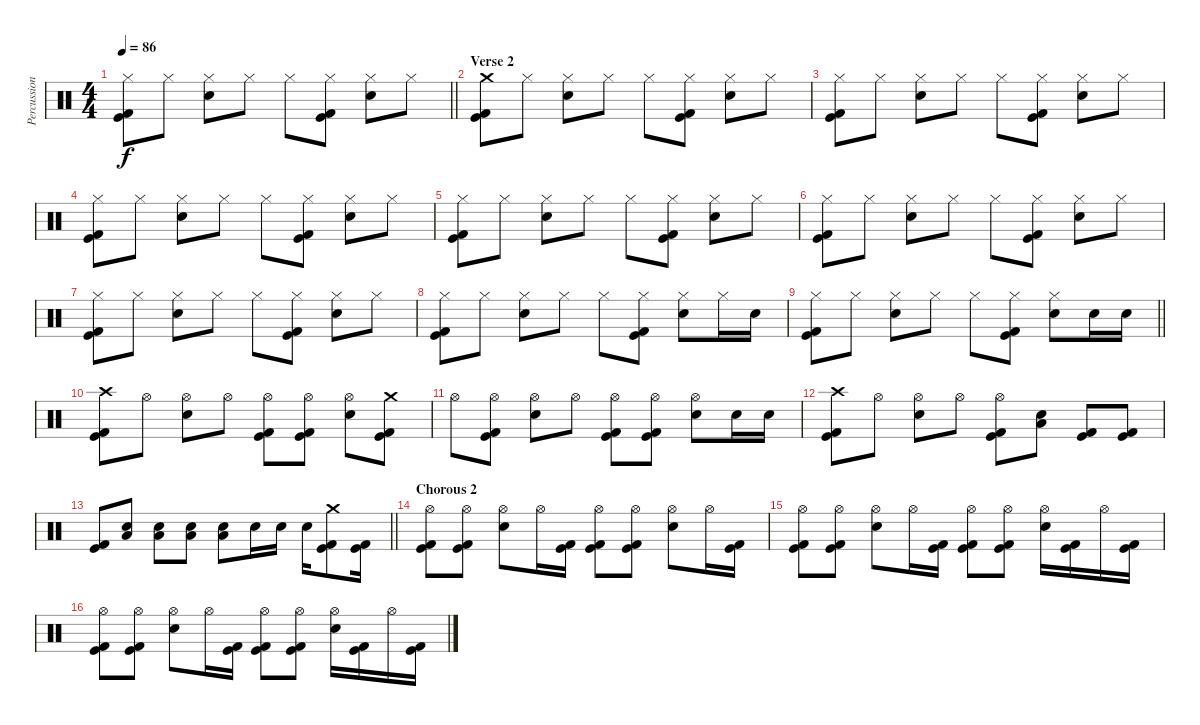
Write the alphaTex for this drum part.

\track ("Percussion" "Percussion") {instrument percussion}
\staff {score}
\articulation defaults
\ts (4 4)
\tempo 86
\clef neutral
\barLineRight lightlight
\ks c
("Hi-Hat (closed)" "Kick (hit)" "Kick (hit) 2").8{dy f} "Hi-Hat (closed)".8 ("Hi-Hat (closed)" "Electric Snare (hit)").8 "Hi-Hat (closed)".8 "Hi-Hat (closed)".8 ("Hi-Hat (closed)" "Kick (hit)" "Kick (hit) 2").8 ("Hi-Hat (closed)" "Electric Snare (hit)").8 "Hi-Hat (closed)".8 |
\section ("" "Verse 2")
("Crash medium (hit)" "Kick (hit)" "Kick (hit) 2").8 "Hi-Hat (closed)".8 ("Hi-Hat (closed)" "Electric Snare (hit)").8 "Hi-Hat (closed)".8 "Hi-Hat (closed)".8 ("Hi-Hat (closed)" "Kick (hit)" "Kick (hit) 2").8 ("Hi-Hat (closed)" "Electric Snare (hit)").8 "Hi-Hat (closed)".8 |
("Hi-Hat (closed)" "Kick (hit)" "Kick (hit) 2").8 "Hi-Hat (closed)".8 ("Hi-Hat (closed)" "Electric Snare (hit)").8 "Hi-Hat (closed)".8 "Hi-Hat (closed)".8 ("Hi-Hat (closed)" "Kick (hit)" "Kick (hit) 2").8 ("Hi-Hat (closed)" "Electric Snare (hit)").8 "Hi-Hat (closed)".8 |
("Hi-Hat (closed)" "Kick (hit)" "Kick (hit) 2").8 "Hi-Hat (closed)".8 ("Hi-Hat (closed)" "Electric Snare (hit)").8 "Hi-Hat (closed)".8 "Hi-Hat (closed)".8 ("Hi-Hat (closed)" "Kick (hit)" "Kick (hit) 2").8 ("Hi-Hat (closed)" "Electric Snare (hit)").8 "Hi-Hat (closed)".8 |
("Hi-Hat (closed)" "Kick (hit)" "Kick (hit) 2").8 "Hi-Hat (closed)".8 ("Hi-Hat (closed)" "Electric Snare (hit)").8 "Hi-Hat (closed)".8 "Hi-Hat (closed)".8 ("Hi-Hat (closed)" "Kick (hit)" "Kick (hit) 2").8 ("Hi-Hat (closed)" "Electric Snare (hit)").8 "Hi-Hat (closed)".8 |
("Hi-Hat (closed)" "Kick (hit)" "Kick (hit) 2").8 "Hi-Hat (closed)".8 ("Hi-Hat (closed)" "Electric Snare (hit)").8 "Hi-Hat (closed)".8 "Hi-Hat (closed)".8 ("Hi-Hat (closed)" "Kick (hit)" "Kick (hit) 2").8 ("Hi-Hat (closed)" "Electric Snare (hit)").8 "Hi-Hat (closed)".8 |
("Hi-Hat (closed)" "Kick (hit)" "Kick (hit) 2").8 "Hi-Hat (closed)".8 ("Hi-Hat (closed)" "Electric Snare (hit)").8 "Hi-Hat (closed)".8 "Hi-Hat (closed)".8 ("Hi-Hat (closed)" "Kick (hit)" "Kick (hit) 2").8 ("Hi-Hat (closed)" "Electric Snare (hit)").8 "Hi-Hat (closed)".8 |
("Hi-Hat (closed)" "Kick (hit)" "Kick (hit) 2").8 "Hi-Hat (closed)".8 ("Hi-Hat (closed)" "Electric Snare (hit)").8 "Hi-Hat (closed)".8 "Hi-Hat (closed)".8 ("Hi-Hat (closed)" "Kick (hit)" "Kick (hit) 2").8 ("Hi-Hat (closed)" "Electric Snare (hit)").8 "Hi-Hat (closed)".16 "Electric Snare (hit)".16 |
\barLineRight lightlight
("Hi-Hat (closed)" "Kick (hit)" "Kick (hit) 2").8 "Hi-Hat (closed)".8 ("Hi-Hat (closed)" "Electric Snare (hit)").8 "Hi-Hat (closed)".8 "Hi-Hat (closed)".8 ("Hi-Hat (closed)" "Kick (hit)" "Kick (hit) 2").8 ("Hi-Hat (closed)" "Electric Snare (hit)").8 "Electric Snare (hit)".16 "Electric Snare (hit)".16 |
\section ("" "")
("Crash high (hit)" "Kick (hit)" "Kick (hit) 2").8 "Hi-Hat (open)".8 ("Hi-Hat (open)" "Electric Snare (hit)").8 "Hi-Hat (open)".8 ("Hi-Hat (open)" "Kick (hit)" "Kick (hit) 2").8 ("Hi-Hat (open)" "Kick (hit)" "Kick (hit) 2").8 ("Hi-Hat (open)" "Electric Snare (hit)").8 ("Crash medium (hit)" "Kick (hit)" "Kick (hit) 2").8 |
"Hi-Hat (open)".8 ("Hi-Hat (open)" "Kick (hit)" "Kick (hit) 2").8 ("Hi-Hat (open)" "Electric Snare (hit)").8 "Hi-Hat (open)".8 ("Hi-Hat (open)" "Kick (hit)" "Kick (hit) 2").8 ("Hi-Hat (open)" "Kick (hit)" "Kick (hit) 2").8 ("Hi-Hat (open)" "Electric Snare (hit)").8 "Electric Snare (hit)".16 "Electric Snare (hit)".16 |
("Crash high (hit)" "Kick (hit)" "Kick (hit) 2").8 "Hi-Hat (open)".8 ("Hi-Hat (open)" "Electric Snare (hit)").8 "Hi-Hat (open)".8 ("Hi-Hat (open)" "Kick (hit)" "Kick (hit) 2").8 ("Electric Snare (hit)" "Low Floor Tom (hit)").8 ("Kick (hit)" "Kick (hit) 2").8 ("Kick (hit)" "Kick (hit) 2").8 |
\barLineRight lightlight
("Kick (hit)" "Kick (hit) 2").8 ("Electric Snare (hit)" "Low Floor Tom (hit)").8 ("Electric Snare (hit)" "Low Floor Tom (hit)").8 ("Electric Snare (hit)" "Low Floor Tom (hit)").8 ("Electric Snare (hit)" "Low Floor Tom (hit)").8 "Electric Snare (hit)".16 "Electric Snare (hit)".16 "Electric Snare (hit)".16 ("Crash medium (hit)" "Kick (hit)" "Kick (hit) 2").8 ("Kick (hit)" "Kick (hit) 2").16 |
\section ("" "Chorous 2")
("Hi-Hat (open)" "Kick (hit)" "Kick (hit) 2").8 ("Hi-Hat (open)" "Kick (hit)" "Kick (hit) 2").8 ("Hi-Hat (open)" "Electric Snare (hit)").8 "Hi-Hat (open)".16 ("Kick (hit)" "Kick (hit) 2").16 ("Hi-Hat (open)" "Kick (hit)" "Kick (hit) 2").8 ("Hi-Hat (open)" "Kick (hit)" "Kick (hit) 2").8 ("Hi-Hat (open)" "Electric Snare (hit)").8 "Hi-Hat (open)".16 ("Kick (hit)" "Kick (hit) 2").16 |
("Hi-Hat (open)" "Kick (hit)" "Kick (hit) 2").8 ("Hi-Hat (open)" "Kick (hit)" "Kick (hit) 2").8 ("Hi-Hat (open)" "Electric Snare (hit)").8 "Hi-Hat (open)".16 ("Kick (hit)" "Kick (hit) 2").16 ("Hi-Hat (open)" "Kick (hit)" "Kick (hit) 2").8 ("Hi-Hat (open)" "Kick (hit)" "Kick (hit) 2").8 ("Hi-Hat (open)" "Electric Snare (hit)").16 ("Kick (hit)" "Kick (hit) 2").16 "Hi-Hat (open)".16 ("Kick (hit)" "Kick (hit) 2").16 |
("Hi-Hat (open)" "Kick (hit)" "Kick (hit) 2").8 ("Hi-Hat (open)" "Kick (hit)" "Kick (hit) 2").8 ("Hi-Hat (open)" "Electric Snare (hit)").8 "Hi-Hat (open)".16 ("Kick (hit)" "Kick (hit) 2").16 ("Hi-Hat (open)" "Kick (hit)" "Kick (hit) 2").8 ("Hi-Hat (open)" "Kick (hit)" "Kick (hit) 2").8 ("Hi-Hat (open)" "Electric Snare (hit)").16 ("Kick (hit)" "Kick (hit) 2").16 "Hi-Hat (open)".16 ("Kick (hit)" "Kick (hit) 2").16
